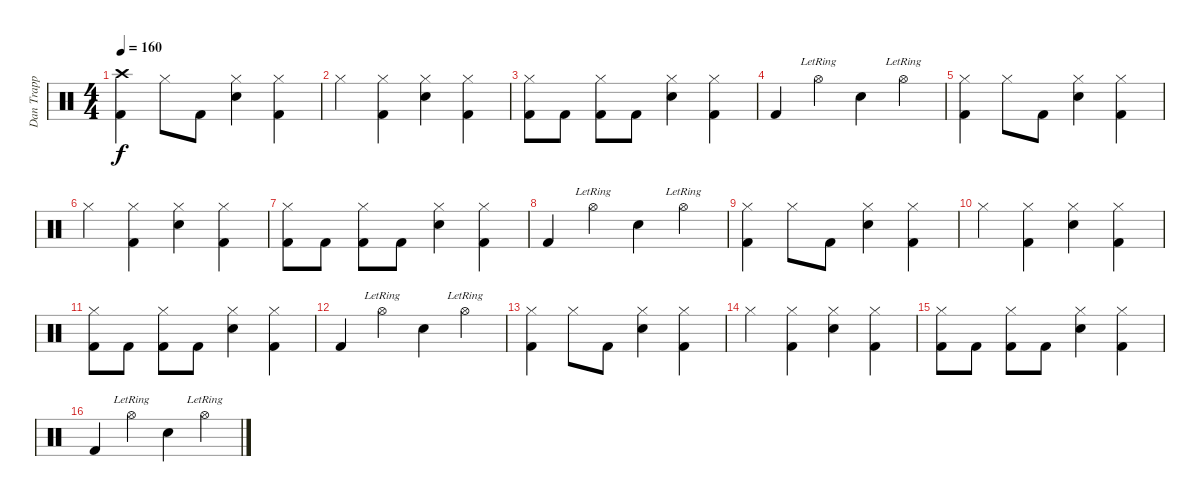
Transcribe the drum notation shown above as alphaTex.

\track ("Dan Trapp" "Dan Trapp") {instrument percussion}
\staff {score}
\articulation defaults
\ts (4 4)
\tempo 160
\clef neutral
\ks c
("Crash high (hit)" "Kick (hit) 2").4{dy f} "Hi-Hat (closed)".8 "Kick (hit) 2".8 ("Hi-Hat (closed)" "Snare (hit) 2").4 ("Hi-Hat (closed)" "Kick (hit) 2").4 |
"Hi-Hat (closed)".4 ("Hi-Hat (closed)" "Kick (hit) 2").4 ("Hi-Hat (closed)" "Snare (hit) 2").4 ("Hi-Hat (closed)" "Kick (hit) 2").4 |
("Kick (hit) 2" "Hi-Hat (closed)").8 "Kick (hit) 2".8 ("Kick (hit) 2" "Hi-Hat (closed)").8 "Kick (hit) 2".8 ("Snare (hit) 2" "Hi-Hat (closed)").4 ("Kick (hit) 2" "Hi-Hat (closed)").4 |
"Kick (hit) 2".4 "Hi-Hat (open)"{lr}.4 "Snare (hit) 2".4 "Hi-Hat (open)"{lr}.4 |
("Hi-Hat (closed)" "Kick (hit) 2").4 "Hi-Hat (closed)".8 "Kick (hit) 2".8 ("Hi-Hat (closed)" "Snare (hit) 2").4 ("Hi-Hat (closed)" "Kick (hit) 2").4 |
"Hi-Hat (closed)".4 ("Hi-Hat (closed)" "Kick (hit) 2").4 ("Hi-Hat (closed)" "Snare (hit) 2").4 ("Hi-Hat (closed)" "Kick (hit) 2").4 |
("Kick (hit) 2" "Hi-Hat (closed)").8 "Kick (hit) 2".8 ("Kick (hit) 2" "Hi-Hat (closed)").8 "Kick (hit) 2".8 ("Snare (hit) 2" "Hi-Hat (closed)").4 ("Kick (hit) 2" "Hi-Hat (closed)").4 |
"Kick (hit) 2".4 "Hi-Hat (open)"{lr}.4 "Snare (hit) 2".4 "Hi-Hat (open)"{lr}.4 |
("Hi-Hat (closed)" "Kick (hit) 2").4 "Hi-Hat (closed)".8 "Kick (hit) 2".8 ("Hi-Hat (closed)" "Snare (hit) 2").4 ("Hi-Hat (closed)" "Kick (hit) 2").4 |
"Hi-Hat (closed)".4 ("Hi-Hat (closed)" "Kick (hit) 2").4 ("Hi-Hat (closed)" "Snare (hit) 2").4 ("Hi-Hat (closed)" "Kick (hit) 2").4 |
("Kick (hit) 2" "Hi-Hat (closed)").8 "Kick (hit) 2".8 ("Kick (hit) 2" "Hi-Hat (closed)").8 "Kick (hit) 2".8 ("Snare (hit) 2" "Hi-Hat (closed)").4 ("Kick (hit) 2" "Hi-Hat (closed)").4 |
"Kick (hit) 2".4 "Hi-Hat (open)"{lr}.4 "Snare (hit) 2".4 "Hi-Hat (open)"{lr}.4 |
("Hi-Hat (closed)" "Kick (hit) 2").4 "Hi-Hat (closed)".8 "Kick (hit) 2".8 ("Hi-Hat (closed)" "Snare (hit) 2").4 ("Hi-Hat (closed)" "Kick (hit) 2").4 |
"Hi-Hat (closed)".4 ("Hi-Hat (closed)" "Kick (hit) 2").4 ("Hi-Hat (closed)" "Snare (hit) 2").4 ("Hi-Hat (closed)" "Kick (hit) 2").4 |
("Kick (hit) 2" "Hi-Hat (closed)").8 "Kick (hit) 2".8 ("Kick (hit) 2" "Hi-Hat (closed)").8 "Kick (hit) 2".8 ("Snare (hit) 2" "Hi-Hat (closed)").4 ("Kick (hit) 2" "Hi-Hat (closed)").4 |
"Kick (hit) 2".4 "Hi-Hat (open)"{lr}.4 "Snare (hit) 2".4 "Hi-Hat (open)"{lr}.4
